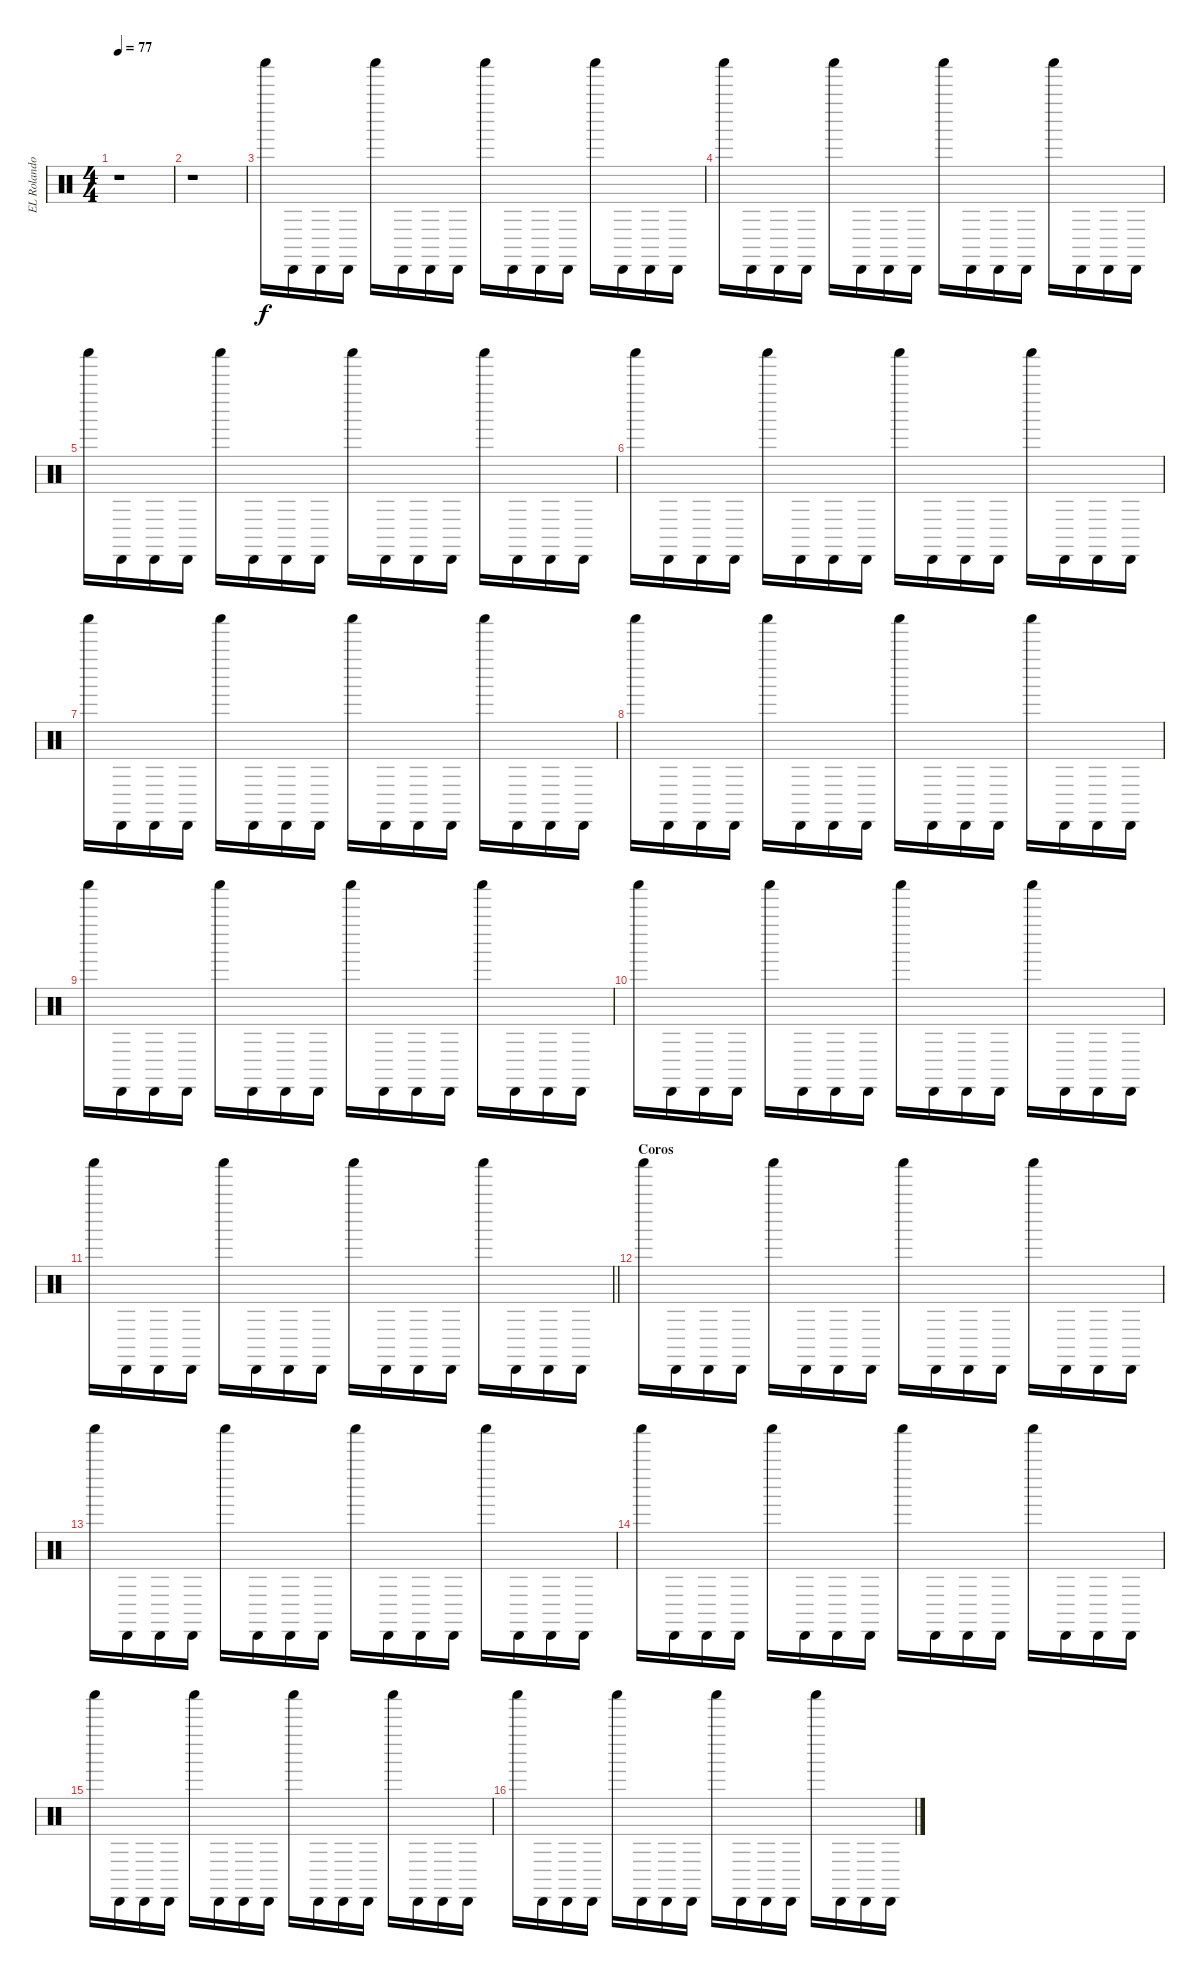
\track ("EL Rolando" "EL Rolando") {instrument percussion}
\staff {score}
\articulation defaults
\ts (4 4)
\tempo 77
\clef neutral
\ks c
r.1{dy mp} |
r.1 |
"Shaker (hit)".16{dy f volume 8} "Cabasa (hit)".16 "Cabasa (hit)".16 "Cabasa (hit)".16 "Shaker (hit)".16 "Cabasa (hit)".16 "Cabasa (hit)".16 "Cabasa (hit)".16 "Shaker (hit)".16 "Cabasa (hit)".16 "Cabasa (hit)".16 "Cabasa (hit)".16 "Shaker (hit)".16 "Cabasa (hit)".16 "Cabasa (hit)".16 "Cabasa (hit)".16 |
"Shaker (hit)".16 "Cabasa (hit)".16 "Cabasa (hit)".16 "Cabasa (hit)".16 "Shaker (hit)".16 "Cabasa (hit)".16 "Cabasa (hit)".16 "Cabasa (hit)".16 "Shaker (hit)".16 "Cabasa (hit)".16 "Cabasa (hit)".16 "Cabasa (hit)".16 "Shaker (hit)".16 "Cabasa (hit)".16 "Cabasa (hit)".16 "Cabasa (hit)".16 |
"Shaker (hit)".16 "Cabasa (hit)".16 "Cabasa (hit)".16 "Cabasa (hit)".16 "Shaker (hit)".16 "Cabasa (hit)".16 "Cabasa (hit)".16 "Cabasa (hit)".16 "Shaker (hit)".16 "Cabasa (hit)".16 "Cabasa (hit)".16 "Cabasa (hit)".16 "Shaker (hit)".16 "Cabasa (hit)".16 "Cabasa (hit)".16 "Cabasa (hit)".16 |
"Shaker (hit)".16 "Cabasa (hit)".16 "Cabasa (hit)".16 "Cabasa (hit)".16 "Shaker (hit)".16 "Cabasa (hit)".16 "Cabasa (hit)".16 "Cabasa (hit)".16 "Shaker (hit)".16 "Cabasa (hit)".16 "Cabasa (hit)".16 "Cabasa (hit)".16 "Shaker (hit)".16 "Cabasa (hit)".16 "Cabasa (hit)".16 "Cabasa (hit)".16 |
"Shaker (hit)".16 "Cabasa (hit)".16 "Cabasa (hit)".16 "Cabasa (hit)".16 "Shaker (hit)".16 "Cabasa (hit)".16 "Cabasa (hit)".16 "Cabasa (hit)".16 "Shaker (hit)".16 "Cabasa (hit)".16 "Cabasa (hit)".16 "Cabasa (hit)".16 "Shaker (hit)".16 "Cabasa (hit)".16 "Cabasa (hit)".16 "Cabasa (hit)".16 |
"Shaker (hit)".16 "Cabasa (hit)".16 "Cabasa (hit)".16 "Cabasa (hit)".16 "Shaker (hit)".16 "Cabasa (hit)".16 "Cabasa (hit)".16 "Cabasa (hit)".16 "Shaker (hit)".16 "Cabasa (hit)".16 "Cabasa (hit)".16 "Cabasa (hit)".16 "Shaker (hit)".16 "Cabasa (hit)".16 "Cabasa (hit)".16 "Cabasa (hit)".16 |
"Shaker (hit)".16 "Cabasa (hit)".16 "Cabasa (hit)".16 "Cabasa (hit)".16 "Shaker (hit)".16 "Cabasa (hit)".16 "Cabasa (hit)".16 "Cabasa (hit)".16 "Shaker (hit)".16 "Cabasa (hit)".16 "Cabasa (hit)".16 "Cabasa (hit)".16 "Shaker (hit)".16 "Cabasa (hit)".16 "Cabasa (hit)".16 "Cabasa (hit)".16 |
"Shaker (hit)".16 "Cabasa (hit)".16 "Cabasa (hit)".16 "Cabasa (hit)".16 "Shaker (hit)".16 "Cabasa (hit)".16 "Cabasa (hit)".16 "Cabasa (hit)".16 "Shaker (hit)".16 "Cabasa (hit)".16 "Cabasa (hit)".16 "Cabasa (hit)".16 "Shaker (hit)".16 "Cabasa (hit)".16 "Cabasa (hit)".16 "Cabasa (hit)".16 |
\barLineRight lightlight "Shaker (hit)".16 "Cabasa (hit)".16 "Cabasa (hit)".16 "Cabasa (hit)".16 "Shaker (hit)".16 "Cabasa (hit)".16 "Cabasa (hit)".16 "Cabasa (hit)".16 "Shaker (hit)".16 "Cabasa (hit)".16 "Cabasa (hit)".16 "Cabasa (hit)".16 "Shaker (hit)".16 "Cabasa (hit)".16 "Cabasa (hit)".16 "Cabasa (hit)".16
|
\section ("" "Coros")
"Shaker (hit)".16 "Cabasa (hit)".16 "Cabasa (hit)".16 "Cabasa (hit)".16 "Shaker (hit)".16 "Cabasa (hit)".16 "Cabasa (hit)".16 "Cabasa (hit)".16 "Shaker (hit)".16 "Cabasa (hit)".16 "Cabasa (hit)".16 "Cabasa (hit)".16 "Shaker (hit)".16 "Cabasa (hit)".16 "Cabasa (hit)".16 "Cabasa (hit)".16 |
"Shaker (hit)".16 "Cabasa (hit)".16 "Cabasa (hit)".16 "Cabasa (hit)".16 "Shaker (hit)".16 "Cabasa (hit)".16 "Cabasa (hit)".16 "Cabasa (hit)".16 "Shaker (hit)".16 "Cabasa (hit)".16 "Cabasa (hit)".16 "Cabasa (hit)".16 "Shaker (hit)".16 "Cabasa (hit)".16 "Cabasa (hit)".16 "Cabasa (hit)".16 |
"Shaker (hit)".16 "Cabasa (hit)".16 "Cabasa (hit)".16 "Cabasa (hit)".16 "Shaker (hit)".16 "Cabasa (hit)".16 "Cabasa (hit)".16 "Cabasa (hit)".16 "Shaker (hit)".16 "Cabasa (hit)".16 "Cabasa (hit)".16 "Cabasa (hit)".16 "Shaker (hit)".16 "Cabasa (hit)".16 "Cabasa (hit)".16 "Cabasa (hit)".16 |
"Shaker (hit)".16 "Cabasa (hit)".16 "Cabasa (hit)".16 "Cabasa (hit)".16 "Shaker (hit)".16 "Cabasa (hit)".16 "Cabasa (hit)".16 "Cabasa (hit)".16 "Shaker (hit)".16 "Cabasa (hit)".16 "Cabasa (hit)".16 "Cabasa (hit)".16 "Shaker (hit)".16 "Cabasa (hit)".16 "Cabasa (hit)".16 "Cabasa (hit)".16 |
"Shaker (hit)".16 "Cabasa (hit)".16 "Cabasa (hit)".16 "Cabasa (hit)".16 "Shaker (hit)".16 "Cabasa (hit)".16 "Cabasa (hit)".16 "Cabasa (hit)".16 "Shaker (hit)".16 "Cabasa (hit)".16 "Cabasa (hit)".16 "Cabasa (hit)".16 "Shaker (hit)".16 "Cabasa (hit)".16 "Cabasa (hit)".16 "Cabasa (hit)".16
